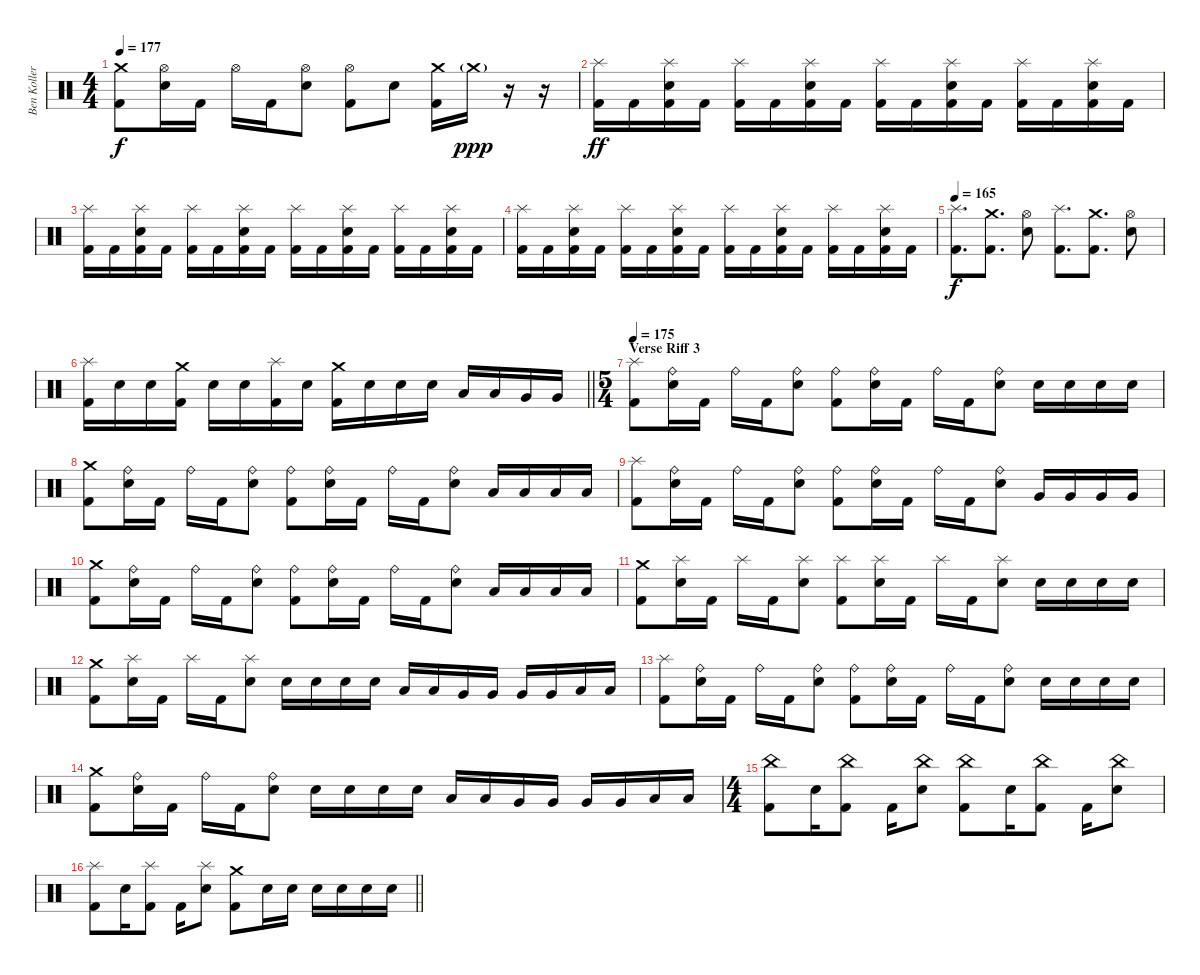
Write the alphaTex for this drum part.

\track ("Ben Koller" "Ben Koller") {instrument percussion}
\staff {score}
\articulation defaults
\ts (4 4)
\tempo 177
\clef neutral
\ks c
("Crash medium (hit)" "Kick (hit) 2").8{dy f} ("Hi-Hat (open)" "Electric Snare (hit)").16 "Kick (hit) 2".16 "Hi-Hat (open)".16 "Kick (hit) 2".16 ("Hi-Hat (open)" "Electric Snare (hit)").8 ("Hi-Hat (open)" "Kick (hit) 2").8 "Electric Snare (hit)".8 ("Crash medium (hit)" "Kick (hit) 2").16 "Crash medium (hit)"{g}.16{dy ppp} r.16 r.16 |
("Splash (hit)" "Kick (hit) 2").16{dy ff} "Kick (hit) 2".16 ("Splash (hit)" "Electric Snare (hit)" "Kick (hit) 2").16 "Kick (hit) 2".16 ("Splash (hit)" "Kick (hit) 2").16 "Kick (hit) 2".16 ("Splash (hit)" "Electric Snare (hit)" "Kick (hit) 2").16 "Kick (hit) 2".16 ("Splash (hit)" "Kick (hit) 2").16 "Kick (hit) 2".16 ("Splash (hit)" "Electric Snare (hit)" "Kick (hit) 2").16 "Kick (hit) 2".16 ("Splash (hit)" "Kick (hit) 2").16 "Kick (hit) 2".16 ("Splash (hit)" "Electric Snare (hit)" "Kick (hit) 2").16 "Kick (hit) 2".16 |
("Splash (hit)" "Kick (hit) 2").16 "Kick (hit) 2".16 ("Splash (hit)" "Electric Snare (hit)" "Kick (hit) 2").16 "Kick (hit) 2".16 ("Splash (hit)" "Kick (hit) 2").16 "Kick (hit) 2".16 ("Splash (hit)" "Electric Snare (hit)" "Kick (hit) 2").16 "Kick (hit) 2".16 ("Splash (hit)" "Kick (hit) 2").16 "Kick (hit) 2".16 ("Splash (hit)" "Electric Snare (hit)" "Kick (hit) 2").16 "Kick (hit) 2".16 ("Splash (hit)" "Kick (hit) 2").16 "Kick (hit) 2".16 ("Splash (hit)" "Electric Snare (hit)" "Kick (hit) 2").16 "Kick (hit) 2".16 |
("Splash (hit)" "Kick (hit) 2").16 "Kick (hit) 2".16 ("Splash (hit)" "Electric Snare (hit)" "Kick (hit) 2").16 "Kick (hit) 2".16 ("Splash (hit)" "Kick (hit) 2").16 "Kick (hit) 2".16 ("Splash (hit)" "Electric Snare (hit)" "Kick (hit) 2").16 "Kick (hit) 2".16 ("Splash (hit)" "Kick (hit) 2").16 "Kick (hit) 2".16 ("Splash (hit)" "Electric Snare (hit)" "Kick (hit) 2").16 "Kick (hit) 2".16 ("Splash (hit)" "Kick (hit) 2").16 "Kick (hit) 2".16 ("Splash (hit)" "Electric Snare (hit)" "Kick (hit) 2").16 "Kick (hit) 2".16 |
\tempo 165
("Splash (hit)" "Kick (hit) 2").8{d dy f} ("Crash medium (hit)" "Kick (hit) 2").8{d} ("Hi-Hat (open)" "Electric Snare (hit)").8 ("Splash (hit)" "Kick (hit) 2").8{d} ("Crash medium (hit)" "Kick (hit) 2").8{d} ("Hi-Hat (open)" "Electric Snare (hit)").8 |
\barLineRight lightlight
("Splash (hit)" "Kick (hit) 2").16 "Electric Snare (hit)".16 "Electric Snare (hit)".16 ("Crash medium (hit)" "Kick (hit) 2").16 "Electric Snare (hit)".16 "Electric Snare (hit)".16 ("Splash (hit)" "Kick (hit) 2").16 "Electric Snare (hit)".16 ("Crash medium (hit)" "Kick (hit) 2").16 "Electric Snare (hit)".16 "Electric Snare (hit)".16 "Electric Snare (hit)".16 "Low Tom (hit)".16 "Low Tom (hit)".16 "Very Low Tom (hit)".16 "Very Low Tom (hit)".16 |
\ts (5 4)
\section ("" "Verse Riff 3")
\tempo 175
("Splash (hit)" "Kick (hit) 2").8 ("Ride (bell)" "Electric Snare (hit)").16 "Kick (hit) 2".16 "Ride (bell)".16 "Kick (hit) 2".16 ("Ride (bell)" "Electric Snare (hit)").8 ("Ride (bell)" "Kick (hit) 2").8 ("Ride (bell)" "Electric Snare (hit)").16 "Kick (hit) 2".16 "Ride (bell)".16 "Kick (hit) 2".16 ("Ride (bell)" "Electric Snare (hit)").8 "Electric Snare (hit)".16 "Electric Snare (hit)".16 "Electric Snare (hit)".16 "Electric Snare (hit)".16 |
("Crash medium (hit)" "Kick (hit) 2").8 ("Ride (bell)" "Electric Snare (hit)").16 "Kick (hit) 2".16 "Ride (bell)".16 "Kick (hit) 2".16 ("Ride (bell)" "Electric Snare (hit)").8 ("Ride (bell)" "Kick (hit) 2").8 ("Ride (bell)" "Electric Snare (hit)").16 "Kick (hit) 2".16 "Ride (bell)".16 "Kick (hit) 2".16 ("Ride (bell)" "Electric Snare (hit)").8 "Low Tom (hit)".16 "Low Tom (hit)".16 "Low Tom (hit)".16 "Low Tom (hit)".16 |
("Splash (hit)" "Kick (hit) 2").8 ("Ride (bell)" "Electric Snare (hit)").16 "Kick (hit) 2".16 "Ride (bell)".16 "Kick (hit) 2".16 ("Ride (bell)" "Electric Snare (hit)").8 ("Ride (bell)" "Kick (hit) 2").8 ("Ride (bell)" "Electric Snare (hit)").16 "Kick (hit) 2".16 "Ride (bell)".16 "Kick (hit) 2".16 ("Ride (bell)" "Electric Snare (hit)").8 "Very Low Tom (hit)".16 "Very Low Tom (hit)".16 "Very Low Tom (hit)".16 "Very Low Tom (hit)".16 |
("Crash medium (hit)" "Kick (hit) 2").8 ("Ride (bell)" "Electric Snare (hit)").16 "Kick (hit) 2".16 "Ride (bell)".16 "Kick (hit) 2".16 ("Ride (bell)" "Electric Snare (hit)").8 ("Ride (bell)" "Kick (hit) 2").8 ("Ride (bell)" "Electric Snare (hit)").16 "Kick (hit) 2".16 "Ride (bell)".16 "Kick (hit) 2".16 ("Ride (bell)" "Electric Snare (hit)").8 "Low Floor Tom (hit)".16 "Low Floor Tom (hit)".16 "Low Floor Tom (hit)".16 "Low Floor Tom (hit)".16 |
("Crash medium (hit)" "Kick (hit) 2").8 ("Splash (hit)" "Electric Snare (hit)").16 "Kick (hit) 2".16 "Splash (hit)".16 "Kick (hit) 2".16 ("Splash (hit)" "Electric Snare (hit)").8 ("Splash (hit)" "Kick (hit) 2").8 ("Splash (hit)" "Electric Snare (hit)").16 "Kick (hit) 2".16 "Splash (hit)".16 "Kick (hit) 2".16 ("Splash (hit)" "Electric Snare (hit)").8 "Electric Snare (hit)".16 "Electric Snare (hit)".16 "Electric Snare (hit)".16 "Electric Snare (hit)".16 |
("Crash medium (hit)" "Kick (hit) 2").8 ("Splash (hit)" "Electric Snare (hit)").16 "Kick (hit) 2".16 "Splash (hit)".16 "Kick (hit) 2".16 ("Splash (hit)" "Electric Snare (hit)").8 "Electric Snare (hit)".16 "Electric Snare (hit)".16 "Electric Snare (hit)".16 "Electric Snare (hit)".16 "Low Tom (hit)".16 "Low Tom (hit)".16 "Very Low Tom (hit)".16 "Very Low Tom (hit)".16 "Very Low Tom (hit)".16 "Very Low Tom (hit)".16 "Low Floor Tom (hit)".16 "Low Floor Tom (hit)".16 |
("Splash (hit)" "Kick (hit) 2").8 ("Ride (bell)" "Electric Snare (hit)").16 "Kick (hit) 2".16 "Ride (bell)".16 "Kick (hit) 2".16 ("Ride (bell)" "Electric Snare (hit)").8 ("Ride (bell)" "Kick (hit) 2").8 ("Ride (bell)" "Electric Snare (hit)").16 "Kick (hit) 2".16 "Ride (bell)".16 "Kick (hit) 2".16 ("Ride (bell)" "Electric Snare (hit)").8 "Electric Snare (hit)".16 "Electric Snare (hit)".16 "Electric Snare (hit)".16 "Electric Snare (hit)".16 |
("Crash medium (hit)" "Kick (hit) 2").8 ("Ride (bell)" "Electric Snare (hit)").16 "Kick (hit) 2".16 "Ride (bell)".16 "Kick (hit) 2".16 ("Ride (bell)" "Electric Snare (hit)").8 "Electric Snare (hit)".16 "Electric Snare (hit)".16 "Electric Snare (hit)".16 "Electric Snare (hit)".16 "Low Tom (hit)".16 "Low Tom (hit)".16 "Very Low Tom (hit)".16 "Very Low Tom (hit)".16 "Very Low Tom (hit)".16 "Very Low Tom (hit)".16 "Low Floor Tom (hit)".16 "Low Floor Tom (hit)".16 |
\ts (4 4)
("China (hit)" "Kick (hit) 2").8 "Electric Snare (hit)".16 ("China (hit)" "Kick (hit) 2").8 "Kick (hit) 2".16 ("China (hit)" "Electric Snare (hit)").8 ("China (hit)" "Kick (hit) 2").8 "Electric Snare (hit)".16 ("China (hit)" "Kick (hit) 2").8 "Kick (hit) 2".16 ("China (hit)" "Electric Snare (hit)").8 |
\barLineRight lightlight
("Splash (hit)" "Kick (hit) 2").8 "Electric Snare (hit)".16 ("Splash (hit)" "Kick (hit) 2").8 "Kick (hit) 2".16 ("Splash (hit)" "Electric Snare (hit)").8 ("Crash medium (hit)" "Kick (hit) 2").8 "Electric Snare (hit)".16 "Electric Snare (hit)".16 "Electric Snare (hit)".16 "Electric Snare (hit)".16 "Electric Snare (hit)".16 "Electric Snare (hit)".16
